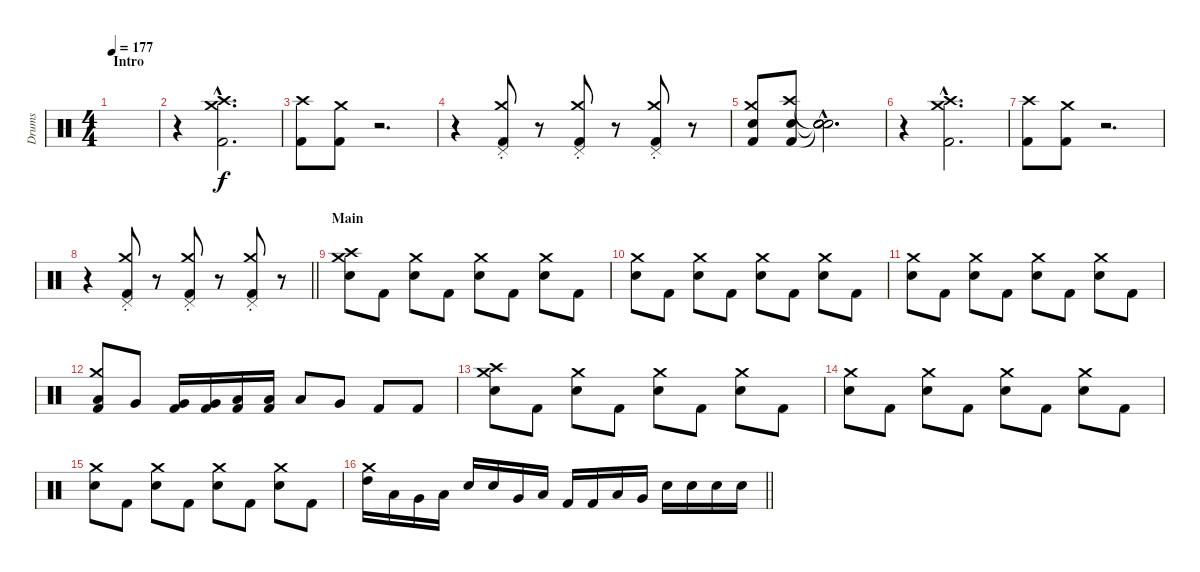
\track ("Drums" "Drums") {instrument percussion}
\staff {score}
\articulation defaults
\ts (4 4)
\section ("" "Intro")
\tempo 177
\clef neutral
\ks c
|
r.4 ("Kick (hit) 2"{hac} "Crash high (hit)"{hac} "Crash medium (hit)"{hac}).2{d} |
("Kick (hit) 2" "Crash high (hit)").8 ("Kick (hit) 2" "Crash medium (hit)").8 r.2{d} |
r.4 ("Kick (hit) 2" "Pedal Hi-Hat (hit)" "Crash medium (hit)"{st}).8 r.8 ("Kick (hit) 2" "Pedal Hi-Hat (hit)" "Crash medium (hit)"{st}).8 r.8 ("Kick (hit) 2" "Pedal Hi-Hat (hit)" "Crash medium (hit)"{st}).8 r.8 |
("Kick (hit) 2" "Snare (hit) 2" "Crash medium (hit)").8 ("Kick (hit) 2" "Snare (hit) 2" "Crash high (hit)").8 ("Snare (hit)"{hac t} "Snare (hit)"{hac t} "Snare (hit)"{hac t} "Snare (hit)"{hac}).2{d} |
r.4 ("Kick (hit) 2"{hac} "Crash high (hit)"{hac} "Crash medium (hit)"{hac}).2{d} |
("Kick (hit) 2" "Crash high (hit)").8 ("Kick (hit) 2" "Crash medium (hit)").8 r.2{d} |
\barLineRight lightlight
r.4 ("Kick (hit) 2" "Pedal Hi-Hat (hit)" "Crash medium (hit)"{st}).8 r.8 ("Kick (hit) 2" "Pedal Hi-Hat (hit)" "Crash medium (hit)"{st}).8 r.8 ("Kick (hit) 2" "Pedal Hi-Hat (hit)" "Crash medium (hit)"{st}).8 r.8 |
\section ("" "Main")
("Snare (hit) 2" "Crash medium (hit)" "Crash high (hit)").8 "Kick (hit) 2".8 ("Snare (hit) 2" "Crash medium (hit)").8 "Kick (hit) 2".8 ("Snare (hit) 2" "Crash medium (hit)").8 "Kick (hit) 2".8 ("Snare (hit) 2" "Crash medium (hit)").8 "Kick (hit) 2".8 |
("Snare (hit) 2" "Crash medium (hit)").8 "Kick (hit) 2".8 ("Snare (hit) 2" "Crash medium (hit)").8 "Kick (hit) 2".8 ("Snare (hit) 2" "Crash medium (hit)").8 "Kick (hit) 2".8 ("Snare (hit) 2" "Crash medium (hit)").8 "Kick (hit) 2".8 |
("Snare (hit) 2" "Crash medium (hit)").8 "Kick (hit) 2".8 ("Snare (hit) 2" "Crash medium (hit)").8 "Kick (hit) 2".8 ("Snare (hit) 2" "Crash medium (hit)").8 "Kick (hit) 2".8 ("Snare (hit) 2" "Crash medium (hit)").8 "Kick (hit) 2".8 |
("Kick (hit) 2" "Low Tom (hit)" "Crash medium (hit)").8 "Very Low Tom (hit)".8 ("Kick (hit) 2" "Very Low Tom (hit)").16 ("Kick (hit) 2" "Very Low Tom (hit)").16 ("Kick (hit) 2" "Low Floor Tom (hit)").16 ("Kick (hit) 2" "Low Floor Tom (hit)").16 "Low Tom (hit)".8 "Very Low Tom (hit)".8 "Kick (hit) 2".8 "Kick (hit) 2".8 |
("Snare (hit) 2" "Crash medium (hit)" "Crash high (hit)").8 "Kick (hit) 2".8 ("Snare (hit) 2" "Crash medium (hit)").8 "Kick (hit) 2".8 ("Snare (hit) 2" "Crash medium (hit)").8 "Kick (hit) 2".8 ("Snare (hit) 2" "Crash medium (hit)").8 "Kick (hit) 2".8 |
("Snare (hit) 2" "Crash medium (hit)").8 "Kick (hit) 2".8 ("Snare (hit) 2" "Crash medium (hit)").8 "Kick (hit) 2".8 ("Snare (hit) 2" "Crash medium (hit)").8 "Kick (hit) 2".8 ("Snare (hit) 2" "Crash medium (hit)").8 "Kick (hit) 2".8 |
("Snare (hit) 2" "Crash medium (hit)").8 "Kick (hit) 2".8 ("Snare (hit) 2" "Crash medium (hit)").8 "Kick (hit) 2".8 ("Snare (hit) 2" "Crash medium (hit)").8 "Kick (hit) 2".8 ("Snare (hit) 2" "Crash medium (hit)").8 "Kick (hit) 2".8 |
\barLineRight lightlight
("High Tom (hit)" "Crash medium (hit)").16 "Low Tom (hit)".16 "Very Low Tom (hit)".16 "Low Floor Tom (hit)".16 "Snare (hit) 2".16 "Snare (hit) 2".16 "Very Low Tom (hit)".16 "Low Floor Tom (hit)".16 "Kick (hit) 2".16 "Kick (hit) 2".16 "Low Tom (hit)".16 "Very Low Tom (hit)".16 "Snare (hit) 2".16 "Snare (hit) 2".16 "Snare (hit) 2".16 "Snare (hit) 2".16
